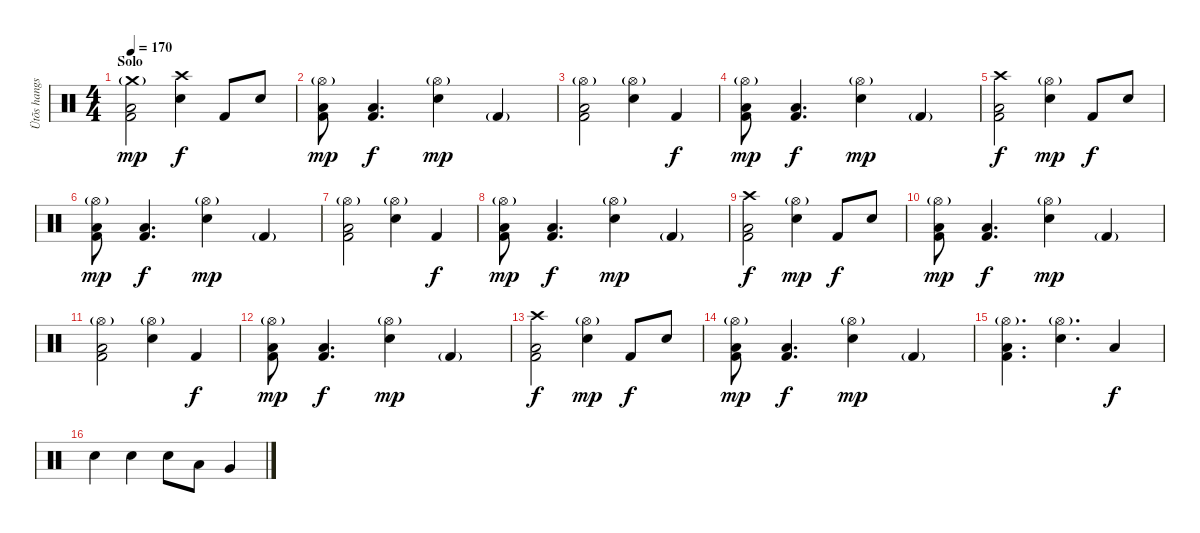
\track ("Ütõs hangszer" "Ütõs hangs") {instrument percussion}
\staff {score}
\articulation defaults
\ts (4 4)
\section ("" "Solo")
\tempo 170
\clef neutral
\ks c
("Crash medium (hit)"{g} "Kick (hit) 2" "Low Floor Tom (hit)").2{dy mp} ("Crash high (hit)" "Electric Snare (hit)").4{dy f} "Kick (hit) 2".8 "Electric Snare (hit)".8 |
("Hi-Hat (open)"{g} "Kick (hit) 2" "Low Floor Tom (hit)").8{dy mp} ("Kick (hit) 2" "Low Floor Tom (hit)").4{d dy f} ("Hi-Hat (open)"{g} "Electric Snare (hit)").4{dy mp} "Kick (hit) 2"{g}.4 |
("Hi-Hat (open)"{g} "Kick (hit) 2" "Low Floor Tom (hit)").2 ("Hi-Hat (open)"{g} "Electric Snare (hit)").4 "Kick (hit) 2".4{dy f} |
("Hi-Hat (open)"{g} "Kick (hit) 2" "Low Floor Tom (hit)").8{dy mp} ("Kick (hit) 2" "Low Floor Tom (hit)").4{d dy f} ("Hi-Hat (open)"{g} "Electric Snare (hit)").4{dy mp} "Kick (hit) 2"{g}.4 |
("Crash high (hit)" "Kick (hit) 2" "Low Floor Tom (hit)").2{dy f} ("Hi-Hat (open)"{g} "Electric Snare (hit)").4{dy mp} "Kick (hit) 2".8{dy f} "Electric Snare (hit)".8 |
("Hi-Hat (open)"{g} "Kick (hit) 2" "Low Floor Tom (hit)").8{dy mp} ("Kick (hit) 2" "Low Floor Tom (hit)").4{d dy f} ("Hi-Hat (open)"{g} "Electric Snare (hit)").4{dy mp} "Kick (hit) 2"{g}.4 |
("Hi-Hat (open)"{g} "Kick (hit) 2" "Low Floor Tom (hit)").2 ("Hi-Hat (open)"{g} "Electric Snare (hit)").4 "Kick (hit) 2".4{dy f} |
("Hi-Hat (open)"{g} "Kick (hit) 2" "Low Floor Tom (hit)").8{dy mp} ("Kick (hit) 2" "Low Floor Tom (hit)").4{d dy f} ("Hi-Hat (open)"{g} "Electric Snare (hit)").4{dy mp} "Kick (hit) 2"{g}.4 |
("Crash high (hit)" "Kick (hit) 2" "Low Floor Tom (hit)").2{dy f} ("Hi-Hat (open)"{g} "Electric Snare (hit)").4{dy mp} "Kick (hit) 2".8{dy f} "Electric Snare (hit)".8 |
("Hi-Hat (open)"{g} "Kick (hit) 2" "Low Floor Tom (hit)").8{dy mp} ("Kick (hit) 2" "Low Floor Tom (hit)").4{d dy f} ("Hi-Hat (open)"{g} "Electric Snare (hit)").4{dy mp} "Kick (hit) 2"{g}.4 |
("Hi-Hat (open)"{g} "Kick (hit) 2" "Low Floor Tom (hit)").2 ("Hi-Hat (open)"{g} "Electric Snare (hit)").4 "Kick (hit) 2".4{dy f} |
("Hi-Hat (open)"{g} "Kick (hit) 2" "Low Floor Tom (hit)").8{dy mp} ("Kick (hit) 2" "Low Floor Tom (hit)").4{d dy f} ("Hi-Hat (open)"{g} "Electric Snare (hit)").4{dy mp} "Kick (hit) 2"{g}.4 |
("Crash high (hit)" "Kick (hit) 2" "Low Floor Tom (hit)").2{dy f} ("Hi-Hat (open)"{g} "Electric Snare (hit)").4{dy mp} "Kick (hit) 2".8{dy f} "Electric Snare (hit)".8 |
("Hi-Hat (open)"{g} "Kick (hit) 2" "Low Floor Tom (hit)").8{dy mp} ("Kick (hit) 2" "Low Floor Tom (hit)").4{d dy f} ("Hi-Hat (open)"{g} "Electric Snare (hit)").4{dy mp} "Kick (hit) 2"{g}.4 |
("Hi-Hat (open)"{g} "Kick (hit) 2" "Low Floor Tom (hit)").4{d} ("Hi-Hat (open)"{g} "Electric Snare (hit)").4{d} "Low Tom (hit)".4{dy f} |
"Electric Snare (hit)".4 "Electric Snare (hit)".4 "Electric Snare (hit)".8 "Low Tom (hit)".8 "Very Low Tom (hit)".4
